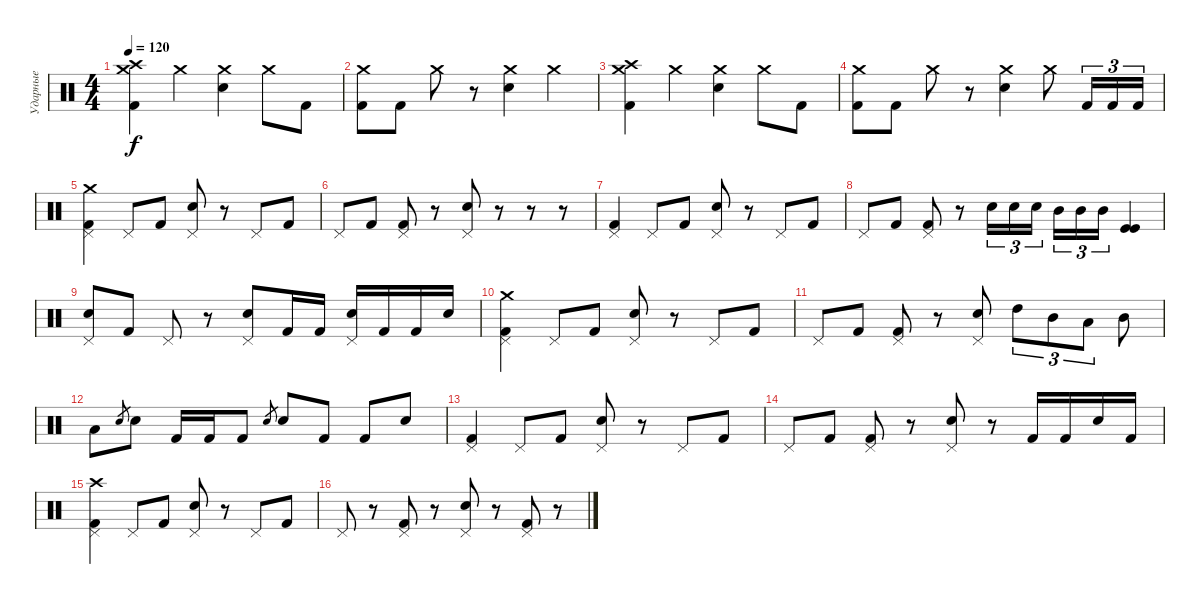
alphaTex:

\track ("Ударные" "Ударные") {instrument percussion}
\staff {score}
\articulation defaults
\ts (4 4)
\tempo 120
\clef neutral
\ks c
("Crash medium (hit)" "Crash high (hit)" "Kick (hit) 2").4{dy f} "Crash medium (hit)".4 ("Crash medium (hit)" "Electric Snare (hit)").4 "Crash medium (hit)".8 "Kick (hit) 2".8 |
("Crash medium (hit)" "Kick (hit) 2").8 "Kick (hit) 2".8 "Crash medium (hit)".8 r.8 ("Crash medium (hit)" "Electric Snare (hit)").4 "Crash medium (hit)".4 |
("Crash medium (hit)" "Crash high (hit)" "Kick (hit) 2").4 "Crash medium (hit)".4 ("Crash medium (hit)" "Electric Snare (hit)").4 "Crash medium (hit)".8 "Kick (hit) 2".8 |
("Crash medium (hit)" "Kick (hit) 2").8 "Kick (hit) 2".8 "Crash medium (hit)".8 r.8 ("Crash medium (hit)" "Electric Snare (hit)").4 "Crash medium (hit)".8 "Kick (hit) 2".16{tu (3 2)} "Kick (hit) 2".16{tu (3 2)} "Kick (hit) 2".16{tu (3 2)} |
("Crash medium (hit)" "Pedal Hi-Hat (hit)" "Kick (hit) 2").4 "Pedal Hi-Hat (hit)".8 "Kick (hit) 2".8 ("Pedal Hi-Hat (hit)" "Electric Snare (hit)").8 r.8 "Pedal Hi-Hat (hit)".8 "Kick (hit) 2".8 |
"Pedal Hi-Hat (hit)".8 "Kick (hit) 2".8 ("Pedal Hi-Hat (hit)" "Kick (hit) 2").8 r.8 ("Pedal Hi-Hat (hit)" "Electric Snare (hit)").8 r.8 r.8 r.8 |
("Pedal Hi-Hat (hit)" "Kick (hit) 2").4 "Pedal Hi-Hat (hit)".8 "Kick (hit) 2".8 ("Pedal Hi-Hat (hit)" "Electric Snare (hit)").8 r.8 "Pedal Hi-Hat (hit)".8 "Kick (hit) 2".8 |
"Pedal Hi-Hat (hit)".8 "Kick (hit) 2".8 ("Pedal Hi-Hat (hit)" "Kick (hit) 2").8 r.8 "Electric Snare (hit)".16{tu (3 2)} "Electric Snare (hit)".16{tu (3 2)} "Electric Snare (hit)".16{tu (3 2) beam splitsecondary} "Mid Tom (hit)".16{tu (3 2)} "Mid Tom (hit)".16{tu (3 2)} "Mid Tom (hit)".16{tu (3 2)} ("Kick (hit)" "Kick (hit)").4 |
("Pedal Hi-Hat (hit)" "Electric Snare (hit)").8 "Kick (hit) 2".8 "Pedal Hi-Hat (hit)".8 r.8 ("Pedal Hi-Hat (hit)" "Electric Snare (hit)").8 "Kick (hit) 2".16 "Kick (hit) 2".16 ("Pedal Hi-Hat (hit)" "Electric Snare (hit)").16 "Kick (hit) 2".16 "Kick (hit) 2".16 "Electric Snare (hit)".16 |
("Crash medium (hit)" "Pedal Hi-Hat (hit)" "Kick (hit) 2").4 "Pedal Hi-Hat (hit)".8 "Kick (hit) 2".8 ("Pedal Hi-Hat (hit)" "Electric Snare (hit)").8 r.8 "Pedal Hi-Hat (hit)".8 "Kick (hit) 2".8 |
"Pedal Hi-Hat (hit)".8 "Kick (hit) 2".8 ("Pedal Hi-Hat (hit)" "Kick (hit) 2").8 r.8 ("Pedal Hi-Hat (hit)" "Electric Snare (hit)").8 "High Tom (hit)".8{tu (3 2)} "Mid Tom (hit)".8{tu (3 2)} "Low Tom (hit)".8{tu (3 2)} "Mid Tom (hit)".8 |
"Low Tom (hit)".8 "Electric Snare (hit)".8{gr} "Electric Snare (hit)".8 "Kick (hit) 2".16 "Kick (hit) 2".16 "Kick (hit) 2".8 "Electric Snare (hit)".8{gr} "Electric Snare (hit)".8 "Kick (hit) 2".8 "Kick (hit) 2".8 "Electric Snare (hit)".8 |
("Pedal Hi-Hat (hit)" "Kick (hit) 2").4 "Pedal Hi-Hat (hit)".8 "Kick (hit) 2".8 ("Pedal Hi-Hat (hit)" "Electric Snare (hit)").8 r.8 "Pedal Hi-Hat (hit)".8 "Kick (hit) 2".8 |
"Pedal Hi-Hat (hit)".8 "Kick (hit) 2".8 ("Pedal Hi-Hat (hit)" "Kick (hit) 2").8 r.8 ("Pedal Hi-Hat (hit)" "Electric Snare (hit)").8 r.8 "Kick (hit) 2".16 "Kick (hit) 2".16 "Electric Snare (hit)".16 "Kick (hit) 2".16 |
("Pedal Hi-Hat (hit)" "Crash high (hit)" "Kick (hit) 2").4 "Pedal Hi-Hat (hit)".8 "Kick (hit) 2".8 ("Pedal Hi-Hat (hit)" "Electric Snare (hit)").8 r.8 "Pedal Hi-Hat (hit)".8 "Kick (hit) 2".8 |
"Pedal Hi-Hat (hit)".8 r.8 ("Pedal Hi-Hat (hit)" "Kick (hit) 2").8 r.8 ("Pedal Hi-Hat (hit)" "Electric Snare (hit)").8 r.8 ("Pedal Hi-Hat (hit)" "Kick (hit) 2").8 r.8
